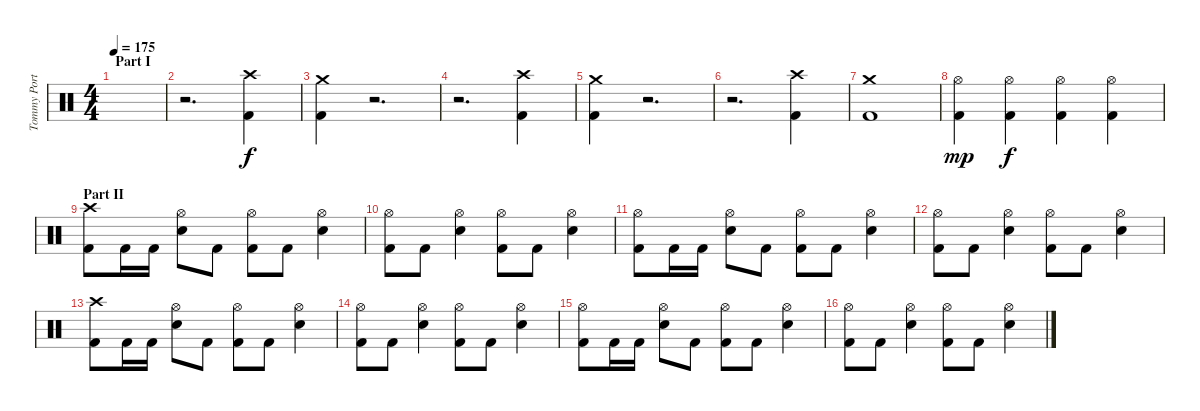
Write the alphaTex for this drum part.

\track ("Tommy Portimo - Drums" "Tommy Port") {instrument percussion}
\staff {score}
\articulation defaults
\ts (4 4)
\section ("" "Part I")
\tempo 175
\clef neutral
\ks c
|
r.2{d} ("Crash high (hit)" "Kick (hit) 2").4 |
("Crash medium (hit)" "Kick (hit) 2").4 r.2{d} |
r.2{d} ("Crash high (hit)" "Kick (hit) 2").4 |
("Crash medium (hit)" "Kick (hit) 2").4 r.2{d} |
r.2{d} ("Crash high (hit)" "Kick (hit) 2").4 |
("Crash medium (hit)" "Kick (hit) 2").1 |
("Hi-Hat (open)" "Kick (hit) 2").4{dy mp} ("Hi-Hat (open)" "Kick (hit) 2").4{dy f} ("Hi-Hat (open)" "Kick (hit) 2").4 ("Hi-Hat (open)" "Kick (hit) 2").4 |
\section ("" "Part II")
("Crash high (hit)" "Kick (hit) 2").8 "Kick (hit) 2".16 "Kick (hit) 2".16 ("Hi-Hat (open)" "Electric Snare (hit)").8 "Kick (hit) 2".8 ("Hi-Hat (open)" "Kick (hit) 2").8 "Kick (hit) 2".8 ("Hi-Hat (open)" "Electric Snare (hit)").4 |
("Hi-Hat (open)" "Kick (hit) 2").8 "Kick (hit) 2".8 ("Hi-Hat (open)" "Electric Snare (hit)").4 ("Hi-Hat (open)" "Kick (hit) 2").8 "Kick (hit) 2".8 ("Hi-Hat (open)" "Electric Snare (hit)").4 |
("Hi-Hat (open)" "Kick (hit) 2").8 "Kick (hit) 2".16 "Kick (hit) 2".16 ("Hi-Hat (open)" "Electric Snare (hit)").8 "Kick (hit) 2".8 ("Hi-Hat (open)" "Kick (hit) 2").8 "Kick (hit) 2".8 ("Hi-Hat (open)" "Electric Snare (hit)").4 |
("Hi-Hat (open)" "Kick (hit) 2").8 "Kick (hit) 2".8 ("Hi-Hat (open)" "Electric Snare (hit)").4 ("Hi-Hat (open)" "Kick (hit) 2").8 "Kick (hit) 2".8 ("Hi-Hat (open)" "Electric Snare (hit)").4 |
("Crash high (hit)" "Kick (hit) 2").8 "Kick (hit) 2".16 "Kick (hit) 2".16 ("Hi-Hat (open)" "Electric Snare (hit)").8 "Kick (hit) 2".8 ("Hi-Hat (open)" "Kick (hit) 2").8 "Kick (hit) 2".8 ("Hi-Hat (open)" "Electric Snare (hit)").4 |
("Hi-Hat (open)" "Kick (hit) 2").8 "Kick (hit) 2".8 ("Hi-Hat (open)" "Electric Snare (hit)").4 ("Hi-Hat (open)" "Kick (hit) 2").8 "Kick (hit) 2".8 ("Hi-Hat (open)" "Electric Snare (hit)").4 |
("Hi-Hat (open)" "Kick (hit) 2").8 "Kick (hit) 2".16 "Kick (hit) 2".16 ("Hi-Hat (open)" "Electric Snare (hit)").8 "Kick (hit) 2".8 ("Hi-Hat (open)" "Kick (hit) 2").8 "Kick (hit) 2".8 ("Hi-Hat (open)" "Electric Snare (hit)").4 |
("Hi-Hat (open)" "Kick (hit) 2").8 "Kick (hit) 2".8 ("Hi-Hat (open)" "Electric Snare (hit)").4 ("Hi-Hat (open)" "Kick (hit) 2").8 "Kick (hit) 2".8 ("Hi-Hat (open)" "Electric Snare (hit)").4
